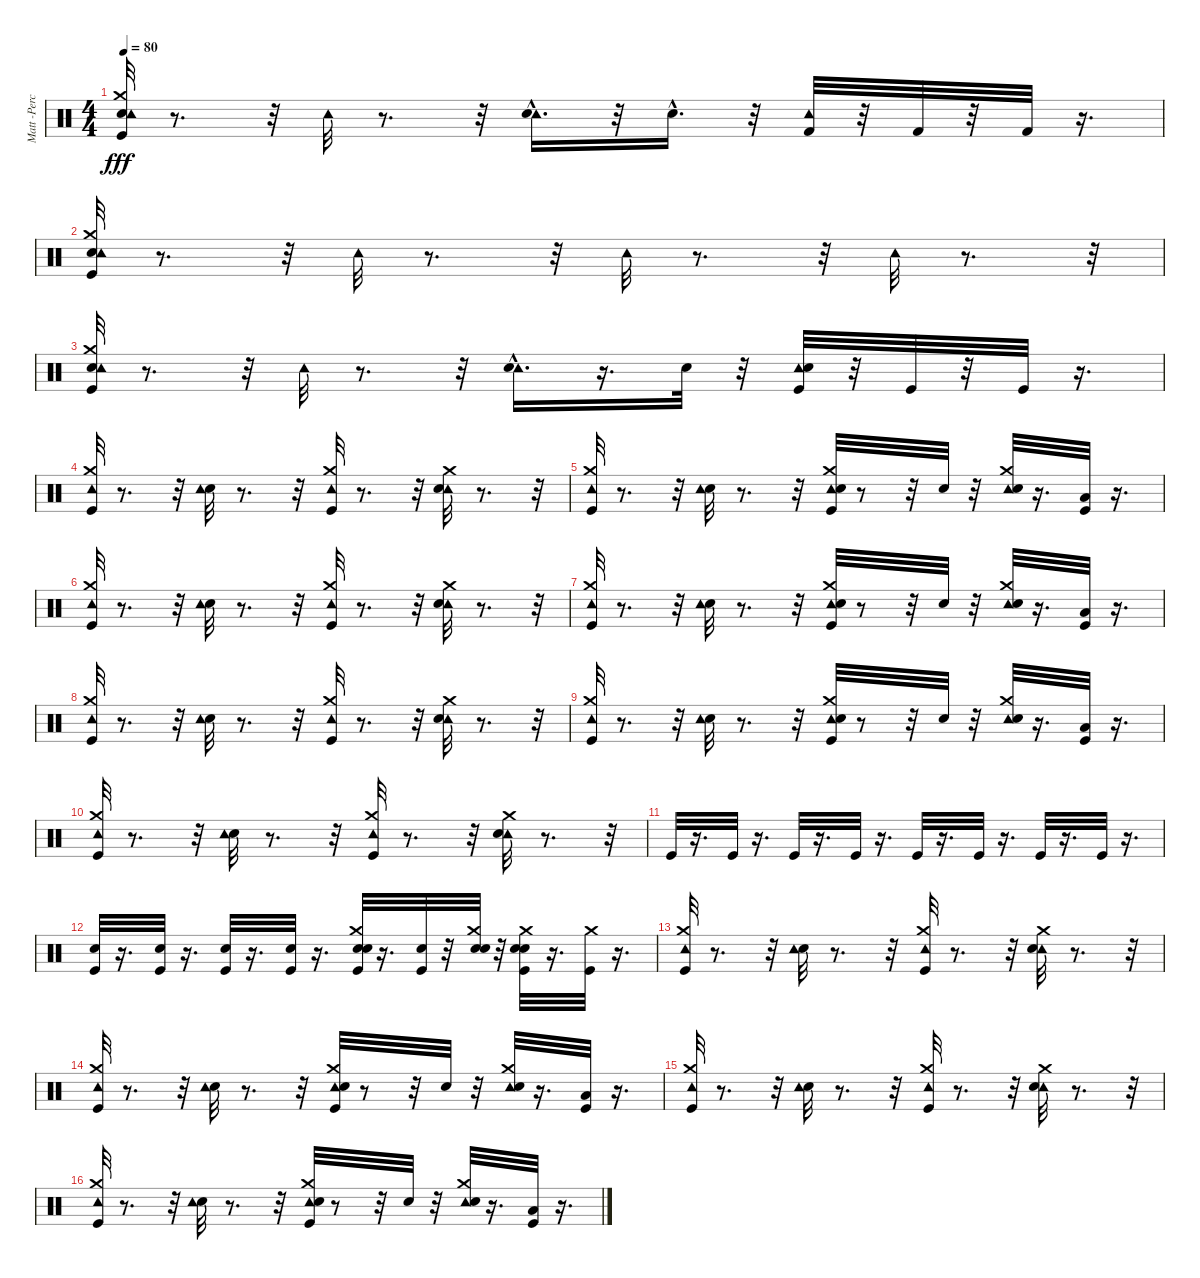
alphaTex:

\track ("Matt -Percussion-" "Matt -Perc") {instrument percussion}
\staff {score}
\articulation defaults
\ts (4 4)
\tempo 80
\clef neutral
\ks c
("Kick (hit)" "Snare (hit) 2" "Crash medium (hit)" "Tambourine (hit)").32{dy fff} r.8{d} r.32 "Tambourine (hit)".32 r.8{d} r.32 ("Tambourine (hit)" "Snare (hit) 2"{hac}).16{d} r.32 "Snare (hit) 2"{hac}.16{d} r.32 ("Tambourine (hit)" "Kick (hit) 2").32 r.32 "Kick (hit) 2".32 r.32 "Kick (hit) 2".32 r.16{d} |
("Kick (hit)" "Snare (hit) 2" "Crash medium (hit)" "Tambourine (hit)").32 r.8{d} r.32 "Tambourine (hit)".32 r.8{d} r.32 "Tambourine (hit)".32 r.8{d} r.32 "Tambourine (hit)".32 r.8{d} r.32 |
("Kick (hit)" "Snare (hit) 2" "Crash medium (hit)" "Tambourine (hit)").32 r.8{d} r.32 "Tambourine (hit)".32 r.8{d} r.32 ("Tambourine (hit)" "Snare (hit) 2"{hac}).16{d} r.16{d} "Snare (hit) 2".32 r.32 ("Tambourine (hit)" "Snare (hit) 2" "Kick (hit)").32 r.32 "Kick (hit)".32 r.32 "Kick (hit)".32 r.16{d} |
("Kick (hit)" "Crash medium (hit)" "Tambourine (hit)").32 r.8{d} r.32 ("Snare (hit) 2" "Tambourine (hit)").32 r.8{d} r.32 ("Tambourine (hit)" "Crash medium (hit)" "Kick (hit)").32 r.8{d} r.32 ("Tambourine (hit)" "Crash medium (hit)" "Snare (hit) 2").32 r.8{d} r.32 |
("Kick (hit)" "Crash medium (hit)" "Tambourine (hit)").32 r.8{d} r.32 ("Snare (hit) 2" "Tambourine (hit)").32 r.8{d} r.32 ("Tambourine (hit)" "Crash medium (hit)" "Kick (hit)" "Snare (hit) 2").32 r.8 r.32 "Snare (hit) 2".32 r.32 ("Tambourine (hit)" "Crash medium (hit)" "Snare (hit) 2").32 r.16{d} ("Kick (hit)" "Low Floor Tom (hit)").32 r.16{d} |
("Kick (hit)" "Crash medium (hit)" "Tambourine (hit)").32 r.8{d} r.32 ("Snare (hit) 2" "Tambourine (hit)").32 r.8{d} r.32 ("Tambourine (hit)" "Crash medium (hit)" "Kick (hit)").32 r.8{d} r.32 ("Tambourine (hit)" "Crash medium (hit)" "Snare (hit) 2").32 r.8{d} r.32 |
("Kick (hit)" "Crash medium (hit)" "Tambourine (hit)").32 r.8{d} r.32 ("Snare (hit) 2" "Tambourine (hit)").32 r.8{d} r.32 ("Tambourine (hit)" "Crash medium (hit)" "Kick (hit)" "Snare (hit) 2").32 r.8 r.32 "Snare (hit) 2".32 r.32 ("Tambourine (hit)" "Crash medium (hit)" "Snare (hit) 2").32 r.16{d} ("Kick (hit)" "Low Floor Tom (hit)").32 r.16{d} |
("Kick (hit)" "Crash medium (hit)" "Tambourine (hit)").32 r.8{d} r.32 ("Snare (hit) 2" "Tambourine (hit)").32 r.8{d} r.32 ("Tambourine (hit)" "Crash medium (hit)" "Kick (hit)").32 r.8{d} r.32 ("Tambourine (hit)" "Crash medium (hit)" "Snare (hit) 2").32 r.8{d} r.32 |
("Kick (hit)" "Crash medium (hit)" "Tambourine (hit)").32 r.8{d} r.32 ("Snare (hit) 2" "Tambourine (hit)").32 r.8{d} r.32 ("Tambourine (hit)" "Crash medium (hit)" "Kick (hit)" "Snare (hit) 2").32 r.8 r.32 "Snare (hit) 2".32 r.32 ("Tambourine (hit)" "Crash medium (hit)" "Snare (hit) 2").32 r.16{d} ("Kick (hit)" "Low Floor Tom (hit)").32 r.16{d} |
("Kick (hit)" "Crash medium (hit)" "Tambourine (hit)").32 r.8{d} r.32 ("Snare (hit) 2" "Tambourine (hit)").32 r.8{d} r.32 ("Tambourine (hit)" "Crash medium (hit)" "Kick (hit)").32 r.8{d} r.32 ("Tambourine (hit)" "Crash medium (hit)" "Snare (hit) 2").32 r.8{d} r.32 |
"Kick (hit)".32 r.16{d} "Kick (hit)".32 r.16{d} "Kick (hit)".32 r.16{d} "Kick (hit)".32 r.16{d} "Kick (hit)".32 r.16{d} "Kick (hit)".32 r.16{d} "Kick (hit)".32 r.16{d} "Kick (hit)".32 r.16{d} |
("Kick (hit)" "Snare (hit) 2").32 r.16{d} ("Kick (hit)" "Snare (hit) 2").32 r.16{d} ("Kick (hit)" "Snare (hit) 2").32 r.16{d} ("Kick (hit)" "Snare (hit) 2").32 r.16{d} ("Kick (hit)" "Snare (hit) 2" "Electric Snare (hit)" "Crash medium (hit)").32 r.16{d} ("Kick (hit)" "Snare (hit) 2").32 r.32 ("Snare (hit) 2" "Electric Snare (hit)" "Crash medium (hit)").32 r.32 ("Kick (hit)" "Snare (hit) 2" "Electric Snare (hit)" "Crash medium (hit)").32 r.16{d} ("Kick (hit)" "Crash medium (hit)").32 r.16{d} |
("Kick (hit)" "Crash medium (hit)" "Tambourine (hit)").32 r.8{d} r.32 ("Snare (hit) 2" "Tambourine (hit)").32 r.8{d} r.32 ("Tambourine (hit)" "Crash medium (hit)" "Kick (hit)").32 r.8{d} r.32 ("Tambourine (hit)" "Crash medium (hit)" "Snare (hit) 2").32 r.8{d} r.32 |
("Kick (hit)" "Crash medium (hit)" "Tambourine (hit)").32 r.8{d} r.32 ("Snare (hit) 2" "Tambourine (hit)").32 r.8{d} r.32 ("Tambourine (hit)" "Crash medium (hit)" "Kick (hit)" "Snare (hit) 2").32 r.8 r.32 "Snare (hit) 2".32 r.32 ("Tambourine (hit)" "Crash medium (hit)" "Snare (hit) 2").32 r.16{d} ("Kick (hit)" "Low Floor Tom (hit)").32 r.16{d} |
("Kick (hit)" "Crash medium (hit)" "Tambourine (hit)").32 r.8{d} r.32 ("Snare (hit) 2" "Tambourine (hit)").32 r.8{d} r.32 ("Tambourine (hit)" "Crash medium (hit)" "Kick (hit)").32 r.8{d} r.32 ("Tambourine (hit)" "Crash medium (hit)" "Snare (hit) 2").32 r.8{d} r.32 |
("Kick (hit)" "Crash medium (hit)" "Tambourine (hit)").32 r.8{d} r.32 ("Snare (hit) 2" "Tambourine (hit)").32 r.8{d} r.32 ("Tambourine (hit)" "Crash medium (hit)" "Kick (hit)" "Snare (hit) 2").32 r.8 r.32 "Snare (hit) 2".32 r.32 ("Tambourine (hit)" "Crash medium (hit)" "Snare (hit) 2").32 r.16{d} ("Kick (hit)" "Low Floor Tom (hit)").32 r.16{d}
